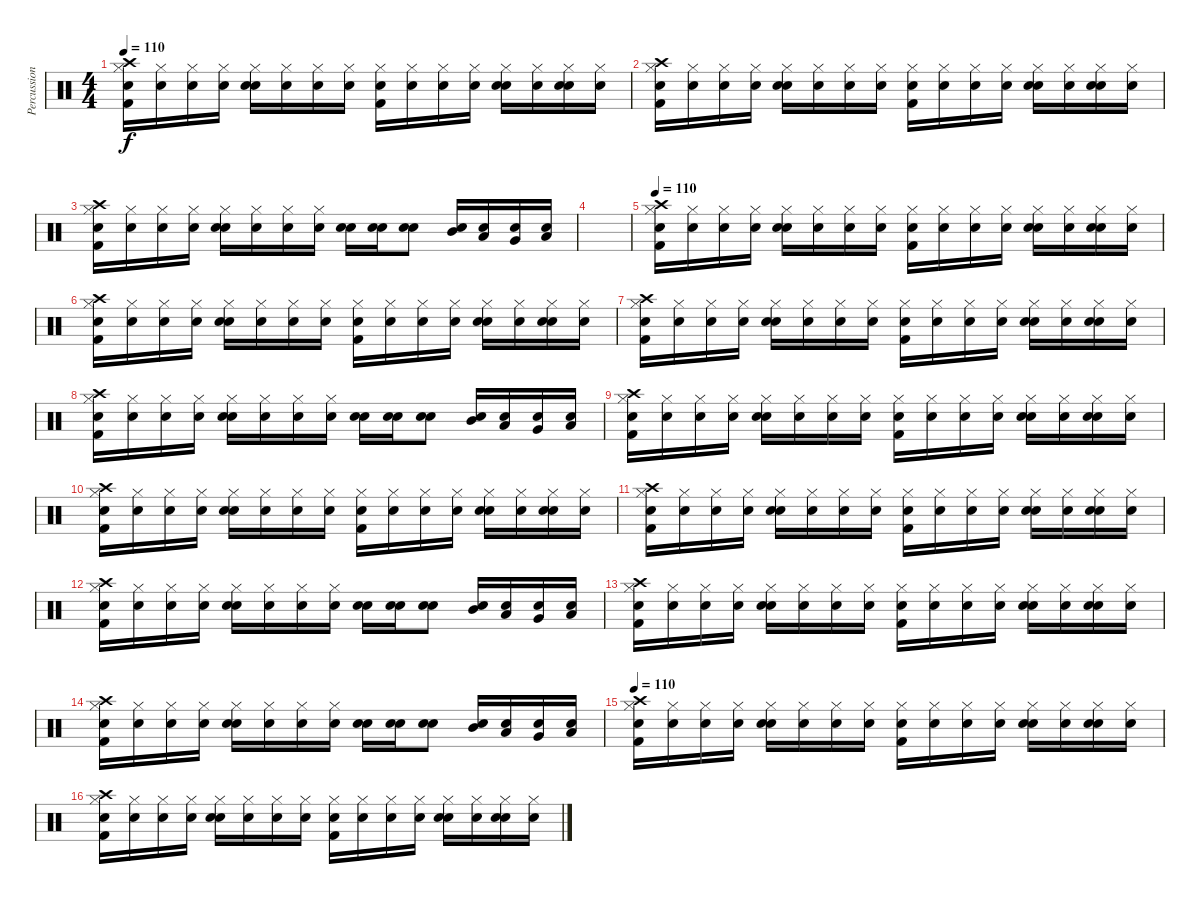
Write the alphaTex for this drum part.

\track ("Percussion" "Percussion") {instrument percussion}
\staff {score}
\articulation defaults
\ts (4 4)
\tempo 110
\clef neutral
\ks c
("Snare (hit)" "Kick (hit) 2" "Hi-Hat (closed)" "Crash high (hit)").16{dy f} ("Snare (hit)" "Hi-Hat (closed)").16 ("Snare (hit)" "Hi-Hat (closed)").16 ("Snare (hit)" "Hi-Hat (closed)").16 ("Snare (hit)" "Snare (hit) 2" "Hi-Hat (closed)").16 ("Snare (hit)" "Hi-Hat (closed)").16 ("Snare (hit)" "Hi-Hat (closed)").16 ("Snare (hit)" "Hi-Hat (closed)").16 ("Snare (hit)" "Kick (hit) 2" "Hi-Hat (closed)").16 ("Snare (hit)" "Hi-Hat (closed)").16 ("Snare (hit)" "Hi-Hat (closed)").16 ("Snare (hit)" "Hi-Hat (closed)").16 ("Snare (hit)" "Snare (hit) 2" "Hi-Hat (closed)").16 ("Snare (hit)" "Hi-Hat (closed)").16 ("Snare (hit)" "Snare (hit) 2" "Hi-Hat (closed)").16 ("Snare (hit)" "Hi-Hat (closed)").16 |
("Snare (hit)" "Kick (hit) 2" "Hi-Hat (closed)" "Crash high (hit)").16 ("Snare (hit)" "Hi-Hat (closed)").16 ("Snare (hit)" "Hi-Hat (closed)").16 ("Snare (hit)" "Hi-Hat (closed)").16 ("Snare (hit)" "Snare (hit) 2" "Hi-Hat (closed)").16 ("Snare (hit)" "Hi-Hat (closed)").16 ("Snare (hit)" "Hi-Hat (closed)").16 ("Snare (hit)" "Hi-Hat (closed)").16 ("Snare (hit)" "Kick (hit) 2" "Hi-Hat (closed)").16 ("Snare (hit)" "Hi-Hat (closed)").16 ("Snare (hit)" "Hi-Hat (closed)").16 ("Snare (hit)" "Hi-Hat (closed)").16 ("Snare (hit)" "Snare (hit) 2" "Hi-Hat (closed)").16 ("Snare (hit)" "Hi-Hat (closed)").16 ("Snare (hit)" "Snare (hit) 2" "Hi-Hat (closed)").16 ("Snare (hit)" "Hi-Hat (closed)").16 |
("Snare (hit)" "Kick (hit) 2" "Hi-Hat (closed)" "Crash high (hit)").16 ("Snare (hit)" "Hi-Hat (closed)").16 ("Snare (hit)" "Hi-Hat (closed)").16 ("Snare (hit)" "Hi-Hat (closed)").16 ("Snare (hit)" "Snare (hit) 2" "Hi-Hat (closed)").16 ("Snare (hit)" "Hi-Hat (closed)").16 ("Snare (hit)" "Hi-Hat (closed)").16 ("Snare (hit)" "Hi-Hat (closed)").16 ("Snare (hit)" "Snare (hit) 2").16 ("Snare (hit)" "Snare (hit) 2").16 ("Snare (hit)" "Snare (hit) 2").8 ("Snare (hit)" "Mid Tom (hit)").16 ("Snare (hit)" "Low Tom (hit)").16 ("Snare (hit)" "Very Low Tom (hit)").16 ("Snare (hit)" "Low Floor Tom (hit)").16 |
|
\tempo 110
("Snare (hit)" "Kick (hit) 2" "Hi-Hat (closed)" "Crash high (hit)").16 ("Snare (hit)" "Hi-Hat (closed)").16 ("Snare (hit)" "Hi-Hat (closed)").16 ("Snare (hit)" "Hi-Hat (closed)").16 ("Snare (hit)" "Snare (hit) 2" "Hi-Hat (closed)").16 ("Snare (hit)" "Hi-Hat (closed)").16 ("Snare (hit)" "Hi-Hat (closed)").16 ("Snare (hit)" "Hi-Hat (closed)").16 ("Snare (hit)" "Kick (hit) 2" "Hi-Hat (closed)").16 ("Snare (hit)" "Hi-Hat (closed)").16 ("Snare (hit)" "Hi-Hat (closed)").16 ("Snare (hit)" "Hi-Hat (closed)").16 ("Snare (hit)" "Snare (hit) 2" "Hi-Hat (closed)").16 ("Snare (hit)" "Hi-Hat (closed)").16 ("Snare (hit)" "Snare (hit) 2" "Hi-Hat (closed)").16 ("Snare (hit)" "Hi-Hat (closed)").16 |
("Snare (hit)" "Kick (hit) 2" "Hi-Hat (closed)" "Crash high (hit)").16 ("Snare (hit)" "Hi-Hat (closed)").16 ("Snare (hit)" "Hi-Hat (closed)").16 ("Snare (hit)" "Hi-Hat (closed)").16 ("Snare (hit)" "Snare (hit) 2" "Hi-Hat (closed)").16 ("Snare (hit)" "Hi-Hat (closed)").16 ("Snare (hit)" "Hi-Hat (closed)").16 ("Snare (hit)" "Hi-Hat (closed)").16 ("Snare (hit)" "Kick (hit) 2" "Hi-Hat (closed)").16 ("Snare (hit)" "Hi-Hat (closed)").16 ("Snare (hit)" "Hi-Hat (closed)").16 ("Snare (hit)" "Hi-Hat (closed)").16 ("Snare (hit)" "Snare (hit) 2" "Hi-Hat (closed)").16 ("Snare (hit)" "Hi-Hat (closed)").16 ("Snare (hit)" "Snare (hit) 2" "Hi-Hat (closed)").16 ("Snare (hit)" "Hi-Hat (closed)").16 |
("Snare (hit)" "Kick (hit) 2" "Hi-Hat (closed)" "Crash high (hit)").16 ("Snare (hit)" "Hi-Hat (closed)").16 ("Snare (hit)" "Hi-Hat (closed)").16 ("Snare (hit)" "Hi-Hat (closed)").16 ("Snare (hit)" "Snare (hit) 2" "Hi-Hat (closed)").16 ("Snare (hit)" "Hi-Hat (closed)").16 ("Snare (hit)" "Hi-Hat (closed)").16 ("Snare (hit)" "Hi-Hat (closed)").16 ("Snare (hit)" "Kick (hit) 2" "Hi-Hat (closed)").16 ("Snare (hit)" "Hi-Hat (closed)").16 ("Snare (hit)" "Hi-Hat (closed)").16 ("Snare (hit)" "Hi-Hat (closed)").16 ("Snare (hit)" "Snare (hit) 2" "Hi-Hat (closed)").16 ("Snare (hit)" "Hi-Hat (closed)").16 ("Snare (hit)" "Snare (hit) 2" "Hi-Hat (closed)").16 ("Snare (hit)" "Hi-Hat (closed)").16 |
("Snare (hit)" "Kick (hit) 2" "Hi-Hat (closed)" "Crash high (hit)").16 ("Snare (hit)" "Hi-Hat (closed)").16 ("Snare (hit)" "Hi-Hat (closed)").16 ("Snare (hit)" "Hi-Hat (closed)").16 ("Snare (hit)" "Snare (hit) 2" "Hi-Hat (closed)").16 ("Snare (hit)" "Hi-Hat (closed)").16 ("Snare (hit)" "Hi-Hat (closed)").16 ("Snare (hit)" "Hi-Hat (closed)").16 ("Snare (hit)" "Snare (hit) 2").16 ("Snare (hit)" "Snare (hit) 2").16 ("Snare (hit)" "Snare (hit) 2").8 ("Snare (hit)" "Mid Tom (hit)").16 ("Snare (hit)" "Low Tom (hit)").16 ("Snare (hit)" "Very Low Tom (hit)").16 ("Snare (hit)" "Low Floor Tom (hit)").16 |
("Snare (hit)" "Kick (hit) 2" "Hi-Hat (closed)" "Crash high (hit)").16 ("Snare (hit)" "Hi-Hat (closed)").16 ("Snare (hit)" "Hi-Hat (closed)").16 ("Snare (hit)" "Hi-Hat (closed)").16 ("Snare (hit)" "Snare (hit) 2" "Hi-Hat (closed)").16 ("Snare (hit)" "Hi-Hat (closed)").16 ("Snare (hit)" "Hi-Hat (closed)").16 ("Snare (hit)" "Hi-Hat (closed)").16 ("Snare (hit)" "Kick (hit) 2" "Hi-Hat (closed)").16 ("Snare (hit)" "Hi-Hat (closed)").16 ("Snare (hit)" "Hi-Hat (closed)").16 ("Snare (hit)" "Hi-Hat (closed)").16 ("Snare (hit)" "Snare (hit) 2" "Hi-Hat (closed)").16 ("Snare (hit)" "Hi-Hat (closed)").16 ("Snare (hit)" "Snare (hit) 2" "Hi-Hat (closed)").16 ("Snare (hit)" "Hi-Hat (closed)").16 |
("Snare (hit)" "Kick (hit) 2" "Hi-Hat (closed)" "Crash high (hit)").16 ("Snare (hit)" "Hi-Hat (closed)").16 ("Snare (hit)" "Hi-Hat (closed)").16 ("Snare (hit)" "Hi-Hat (closed)").16 ("Snare (hit)" "Snare (hit) 2" "Hi-Hat (closed)").16 ("Snare (hit)" "Hi-Hat (closed)").16 ("Snare (hit)" "Hi-Hat (closed)").16 ("Snare (hit)" "Hi-Hat (closed)").16 ("Snare (hit)" "Kick (hit) 2" "Hi-Hat (closed)").16 ("Snare (hit)" "Hi-Hat (closed)").16 ("Snare (hit)" "Hi-Hat (closed)").16 ("Snare (hit)" "Hi-Hat (closed)").16 ("Snare (hit)" "Snare (hit) 2" "Hi-Hat (closed)").16 ("Snare (hit)" "Hi-Hat (closed)").16 ("Snare (hit)" "Snare (hit) 2" "Hi-Hat (closed)").16 ("Snare (hit)" "Hi-Hat (closed)").16 |
("Snare (hit)" "Kick (hit) 2" "Hi-Hat (closed)" "Crash high (hit)").16 ("Snare (hit)" "Hi-Hat (closed)").16 ("Snare (hit)" "Hi-Hat (closed)").16 ("Snare (hit)" "Hi-Hat (closed)").16 ("Snare (hit)" "Snare (hit) 2" "Hi-Hat (closed)").16 ("Snare (hit)" "Hi-Hat (closed)").16 ("Snare (hit)" "Hi-Hat (closed)").16 ("Snare (hit)" "Hi-Hat (closed)").16 ("Snare (hit)" "Kick (hit) 2" "Hi-Hat (closed)").16 ("Snare (hit)" "Hi-Hat (closed)").16 ("Snare (hit)" "Hi-Hat (closed)").16 ("Snare (hit)" "Hi-Hat (closed)").16 ("Snare (hit)" "Snare (hit) 2" "Hi-Hat (closed)").16 ("Snare (hit)" "Hi-Hat (closed)").16 ("Snare (hit)" "Snare (hit) 2" "Hi-Hat (closed)").16 ("Snare (hit)" "Hi-Hat (closed)").16 |
("Snare (hit)" "Kick (hit) 2" "Hi-Hat (closed)" "Crash high (hit)").16 ("Snare (hit)" "Hi-Hat (closed)").16 ("Snare (hit)" "Hi-Hat (closed)").16 ("Snare (hit)" "Hi-Hat (closed)").16 ("Snare (hit)" "Snare (hit) 2" "Hi-Hat (closed)").16 ("Snare (hit)" "Hi-Hat (closed)").16 ("Snare (hit)" "Hi-Hat (closed)").16 ("Snare (hit)" "Hi-Hat (closed)").16 ("Snare (hit)" "Snare (hit) 2").16 ("Snare (hit)" "Snare (hit) 2").16 ("Snare (hit)" "Snare (hit) 2").8 ("Snare (hit)" "Mid Tom (hit)").16 ("Snare (hit)" "Low Tom (hit)").16 ("Snare (hit)" "Very Low Tom (hit)").16 ("Snare (hit)" "Low Floor Tom (hit)").16 |
("Snare (hit)" "Kick (hit) 2" "Hi-Hat (closed)" "Crash high (hit)").16 ("Snare (hit)" "Hi-Hat (closed)").16 ("Snare (hit)" "Hi-Hat (closed)").16 ("Snare (hit)" "Hi-Hat (closed)").16 ("Snare (hit)" "Snare (hit) 2" "Hi-Hat (closed)").16 ("Snare (hit)" "Hi-Hat (closed)").16 ("Snare (hit)" "Hi-Hat (closed)").16 ("Snare (hit)" "Hi-Hat (closed)").16 ("Snare (hit)" "Kick (hit) 2" "Hi-Hat (closed)").16 ("Snare (hit)" "Hi-Hat (closed)").16 ("Snare (hit)" "Hi-Hat (closed)").16 ("Snare (hit)" "Hi-Hat (closed)").16 ("Snare (hit)" "Snare (hit) 2" "Hi-Hat (closed)").16 ("Snare (hit)" "Hi-Hat (closed)").16 ("Snare (hit)" "Snare (hit) 2" "Hi-Hat (closed)").16 ("Snare (hit)" "Hi-Hat (closed)").16 |
("Snare (hit)" "Kick (hit) 2" "Hi-Hat (closed)" "Crash high (hit)").16 ("Snare (hit)" "Hi-Hat (closed)").16 ("Snare (hit)" "Hi-Hat (closed)").16 ("Snare (hit)" "Hi-Hat (closed)").16 ("Snare (hit)" "Snare (hit) 2" "Hi-Hat (closed)").16 ("Snare (hit)" "Hi-Hat (closed)").16 ("Snare (hit)" "Hi-Hat (closed)").16 ("Snare (hit)" "Hi-Hat (closed)").16 ("Snare (hit)" "Snare (hit) 2").16 ("Snare (hit)" "Snare (hit) 2").16 ("Snare (hit)" "Snare (hit) 2").8 ("Snare (hit)" "Mid Tom (hit)").16 ("Snare (hit)" "Low Tom (hit)").16 ("Snare (hit)" "Very Low Tom (hit)").16 ("Snare (hit)" "Low Floor Tom (hit)").16 |
\tempo 110
("Snare (hit)" "Kick (hit) 2" "Hi-Hat (closed)" "Crash high (hit)").16 ("Snare (hit)" "Hi-Hat (closed)").16 ("Snare (hit)" "Hi-Hat (closed)").16 ("Snare (hit)" "Hi-Hat (closed)").16 ("Snare (hit)" "Snare (hit) 2" "Hi-Hat (closed)").16 ("Snare (hit)" "Hi-Hat (closed)").16 ("Snare (hit)" "Hi-Hat (closed)").16 ("Snare (hit)" "Hi-Hat (closed)").16 ("Snare (hit)" "Kick (hit) 2" "Hi-Hat (closed)").16 ("Snare (hit)" "Hi-Hat (closed)").16 ("Snare (hit)" "Hi-Hat (closed)").16 ("Snare (hit)" "Hi-Hat (closed)").16 ("Snare (hit)" "Snare (hit) 2" "Hi-Hat (closed)").16 ("Snare (hit)" "Hi-Hat (closed)").16 ("Snare (hit)" "Snare (hit) 2" "Hi-Hat (closed)").16 ("Snare (hit)" "Hi-Hat (closed)").16 |
("Snare (hit)" "Kick (hit) 2" "Hi-Hat (closed)" "Crash high (hit)").16 ("Snare (hit)" "Hi-Hat (closed)").16 ("Snare (hit)" "Hi-Hat (closed)").16 ("Snare (hit)" "Hi-Hat (closed)").16 ("Snare (hit)" "Snare (hit) 2" "Hi-Hat (closed)").16 ("Snare (hit)" "Hi-Hat (closed)").16 ("Snare (hit)" "Hi-Hat (closed)").16 ("Snare (hit)" "Hi-Hat (closed)").16 ("Snare (hit)" "Kick (hit) 2" "Hi-Hat (closed)").16 ("Snare (hit)" "Hi-Hat (closed)").16 ("Snare (hit)" "Hi-Hat (closed)").16 ("Snare (hit)" "Hi-Hat (closed)").16 ("Snare (hit)" "Snare (hit) 2" "Hi-Hat (closed)").16 ("Snare (hit)" "Hi-Hat (closed)").16 ("Snare (hit)" "Snare (hit) 2" "Hi-Hat (closed)").16 ("Snare (hit)" "Hi-Hat (closed)").16
